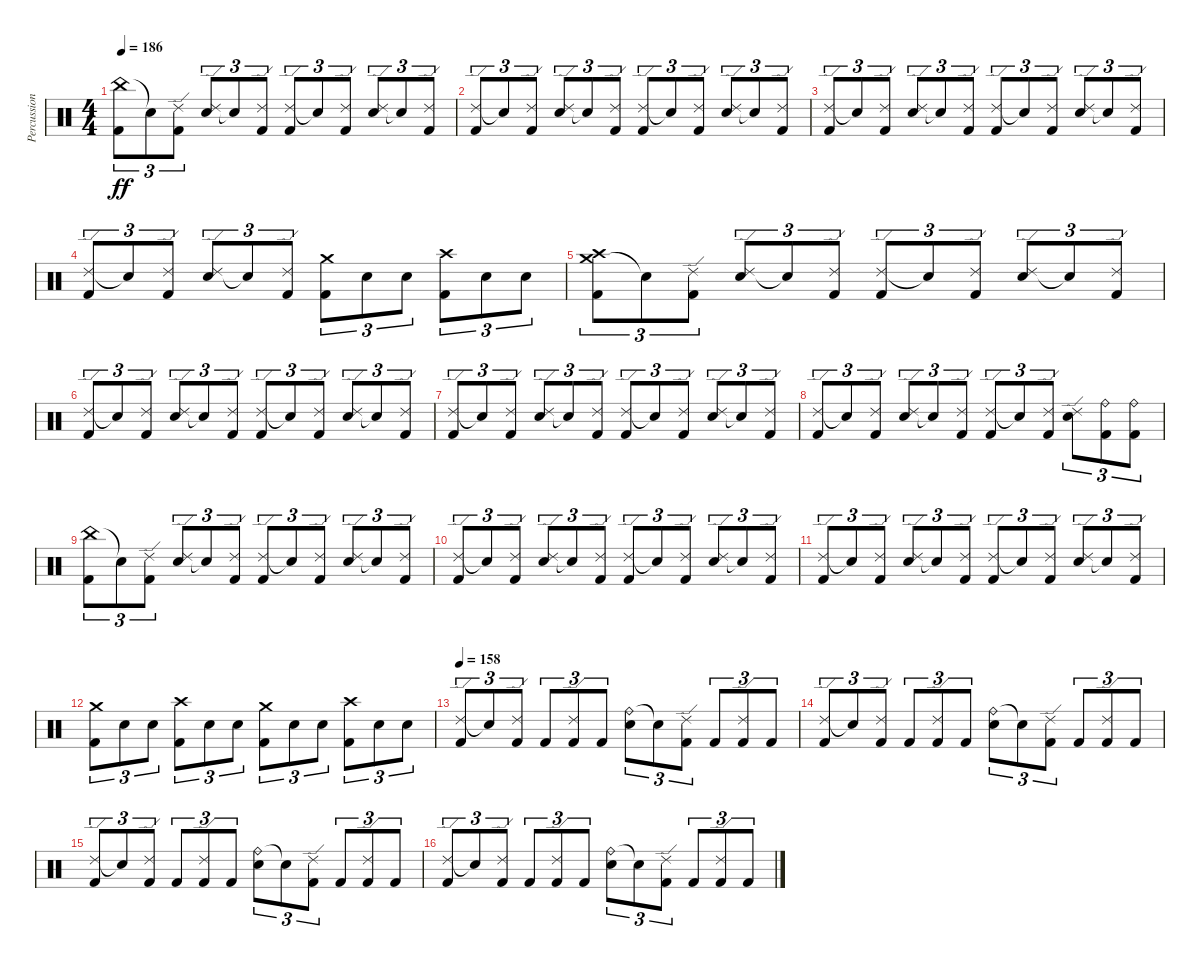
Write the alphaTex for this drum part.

\track ("Percussion" "Percussion") {instrument percussion}
\staff {score}
\articulation defaults
\ts (4 4)
\tempo 186
\clef neutral
\ks c
("China (hit)" "Kick (hit) 2").8{tu (3 2) dy ff} "Snare (hit)"{t}.8{tu (3 2)} ("Ride (edge) 2" "Kick (hit) 2").8{tu (3 2)} ("Ride (edge) 2" "Snare (hit) 2").8{tu (3 2)} "Snare (hit)"{t}.8{tu (3 2)} ("Ride (edge) 2" "Kick (hit) 2").8{tu (3 2)} ("Ride (edge) 2" "Kick (hit) 2").8{tu (3 2)} "Snare (hit)"{t}.8{tu (3 2)} ("Ride (edge) 2" "Kick (hit) 2").8{tu (3 2)} ("Ride (edge) 2" "Snare (hit) 2").8{tu (3 2)} "Snare (hit)"{t}.8{tu (3 2)} ("Ride (edge) 2" "Kick (hit) 2").8{tu (3 2)} |
("Ride (edge) 2" "Kick (hit) 2").8{tu (3 2)} "Snare (hit)"{t}.8{tu (3 2)} ("Ride (edge) 2" "Kick (hit) 2").8{tu (3 2)} ("Ride (edge) 2" "Snare (hit) 2").8{tu (3 2)} "Snare (hit)"{t}.8{tu (3 2)} ("Ride (edge) 2" "Kick (hit) 2").8{tu (3 2)} ("Ride (edge) 2" "Kick (hit) 2").8{tu (3 2)} "Snare (hit)"{t}.8{tu (3 2)} ("Ride (edge) 2" "Kick (hit) 2").8{tu (3 2)} ("Ride (edge) 2" "Snare (hit) 2").8{tu (3 2)} "Snare (hit)"{t}.8{tu (3 2)} ("Ride (edge) 2" "Kick (hit) 2").8{tu (3 2)} |
("Ride (edge) 2" "Kick (hit) 2").8{tu (3 2)} "Snare (hit)"{t}.8{tu (3 2)} ("Ride (edge) 2" "Kick (hit) 2").8{tu (3 2)} ("Ride (edge) 2" "Snare (hit) 2").8{tu (3 2)} "Snare (hit)"{t}.8{tu (3 2)} ("Ride (edge) 2" "Kick (hit) 2").8{tu (3 2)} ("Ride (edge) 2" "Kick (hit) 2").8{tu (3 2)} "Snare (hit)"{t}.8{tu (3 2)} ("Ride (edge) 2" "Kick (hit) 2").8{tu (3 2)} ("Ride (edge) 2" "Snare (hit) 2").8{tu (3 2)} "Snare (hit)"{t}.8{tu (3 2)} ("Ride (edge) 2" "Kick (hit) 2").8{tu (3 2)} |
("Ride (edge) 2" "Kick (hit) 2").8{tu (3 2)} "Snare (hit)"{t}.8{tu (3 2)} ("Ride (edge) 2" "Kick (hit) 2").8{tu (3 2)} ("Ride (edge) 2" "Snare (hit) 2").8{tu (3 2)} "Snare (hit)"{t}.8{tu (3 2)} ("Ride (edge) 2" "Kick (hit) 2").8{tu (3 2)} ("Crash medium (hit)" "Kick (hit) 2").8{tu (3 2)} "Snare (hit) 2".8{tu (3 2)} "Snare (hit) 2".8{tu (3 2)} ("Crash high (hit)" "Kick (hit) 2").8{tu (3 2)} "Snare (hit) 2".8{tu (3 2)} "Snare (hit) 2".8{tu (3 2)} |
("Crash medium (hit)" "Crash high (hit)" "Kick (hit) 2").8{tu (3 2)} "Snare (hit)"{t}.8{tu (3 2)} ("Ride (edge) 2" "Kick (hit) 2").8{tu (3 2)} ("Ride (edge) 2" "Snare (hit) 2").8{tu (3 2)} "Snare (hit)"{t}.8{tu (3 2)} ("Ride (edge) 2" "Kick (hit) 2").8{tu (3 2)} ("Ride (edge) 2" "Kick (hit) 2").8{tu (3 2)} "Snare (hit)"{t}.8{tu (3 2)} ("Ride (edge) 2" "Kick (hit) 2").8{tu (3 2)} ("Ride (edge) 2" "Snare (hit) 2").8{tu (3 2)} "Snare (hit)"{t}.8{tu (3 2)} ("Ride (edge) 2" "Kick (hit) 2").8{tu (3 2)} |
("Ride (edge) 2" "Kick (hit) 2").8{tu (3 2)} "Snare (hit)"{t}.8{tu (3 2)} ("Ride (edge) 2" "Kick (hit) 2").8{tu (3 2)} ("Ride (edge) 2" "Snare (hit) 2").8{tu (3 2)} "Snare (hit)"{t}.8{tu (3 2)} ("Ride (edge) 2" "Kick (hit) 2").8{tu (3 2)} ("Ride (edge) 2" "Kick (hit) 2").8{tu (3 2)} "Snare (hit)"{t}.8{tu (3 2)} ("Ride (edge) 2" "Kick (hit) 2").8{tu (3 2)} ("Ride (edge) 2" "Snare (hit) 2").8{tu (3 2)} "Snare (hit)"{t}.8{tu (3 2)} ("Ride (edge) 2" "Kick (hit) 2").8{tu (3 2)} |
("Ride (edge) 2" "Kick (hit) 2").8{tu (3 2)} "Snare (hit)"{t}.8{tu (3 2)} ("Ride (edge) 2" "Kick (hit) 2").8{tu (3 2)} ("Ride (edge) 2" "Snare (hit) 2").8{tu (3 2)} "Snare (hit)"{t}.8{tu (3 2)} ("Ride (edge) 2" "Kick (hit) 2").8{tu (3 2)} ("Ride (edge) 2" "Kick (hit) 2").8{tu (3 2)} "Snare (hit)"{t}.8{tu (3 2)} ("Ride (edge) 2" "Kick (hit) 2").8{tu (3 2)} ("Ride (edge) 2" "Snare (hit) 2").8{tu (3 2)} "Snare (hit)"{t}.8{tu (3 2)} ("Ride (edge) 2" "Kick (hit) 2").8{tu (3 2)} |
("Ride (edge) 2" "Kick (hit) 2").8{tu (3 2)} "Snare (hit)"{t}.8{tu (3 2)} ("Ride (edge) 2" "Kick (hit) 2").8{tu (3 2)} ("Ride (edge) 2" "Snare (hit) 2").8{tu (3 2)} "Snare (hit)"{t}.8{tu (3 2)} ("Ride (edge) 2" "Kick (hit) 2").8{tu (3 2)} ("Ride (edge) 2" "Kick (hit) 2").8{tu (3 2)} "Snare (hit)"{t}.8{tu (3 2)} ("Ride (edge) 2" "Kick (hit) 2").8{tu (3 2)} ("Ride (edge) 2" "Snare (hit) 2").8{tu (3 2)} ("Ride (bell)" "Kick (hit) 2").8{tu (3 2)} ("Ride (bell)" "Kick (hit) 2").8{tu (3 2)} |
("China (hit)" "Kick (hit) 2").8{tu (3 2)} "Snare (hit)"{t}.8{tu (3 2)} ("Ride (edge) 2" "Kick (hit) 2").8{tu (3 2)} ("Ride (edge) 2" "Snare (hit) 2").8{tu (3 2)} "Snare (hit)"{t}.8{tu (3 2)} ("Ride (edge) 2" "Kick (hit) 2").8{tu (3 2)} ("Ride (edge) 2" "Kick (hit) 2").8{tu (3 2)} "Snare (hit)"{t}.8{tu (3 2)} ("Ride (edge) 2" "Kick (hit) 2").8{tu (3 2)} ("Ride (edge) 2" "Snare (hit) 2").8{tu (3 2)} "Snare (hit)"{t}.8{tu (3 2)} ("Ride (edge) 2" "Kick (hit) 2").8{tu (3 2)} |
("Ride (edge) 2" "Kick (hit) 2").8{tu (3 2)} "Snare (hit)"{t}.8{tu (3 2)} ("Ride (edge) 2" "Kick (hit) 2").8{tu (3 2)} ("Ride (edge) 2" "Snare (hit) 2").8{tu (3 2)} "Snare (hit)"{t}.8{tu (3 2)} ("Ride (edge) 2" "Kick (hit) 2").8{tu (3 2)} ("Ride (edge) 2" "Kick (hit) 2").8{tu (3 2)} "Snare (hit)"{t}.8{tu (3 2)} ("Ride (edge) 2" "Kick (hit) 2").8{tu (3 2)} ("Ride (edge) 2" "Snare (hit) 2").8{tu (3 2)} "Snare (hit)"{t}.8{tu (3 2)} ("Ride (edge) 2" "Kick (hit) 2").8{tu (3 2)} |
("Ride (edge) 2" "Kick (hit) 2").8{tu (3 2)} "Snare (hit)"{t}.8{tu (3 2)} ("Ride (edge) 2" "Kick (hit) 2").8{tu (3 2)} ("Ride (edge) 2" "Snare (hit) 2").8{tu (3 2)} "Snare (hit)"{t}.8{tu (3 2)} ("Ride (edge) 2" "Kick (hit) 2").8{tu (3 2)} ("Ride (edge) 2" "Kick (hit) 2").8{tu (3 2)} "Snare (hit)"{t}.8{tu (3 2)} ("Ride (edge) 2" "Kick (hit) 2").8{tu (3 2)} ("Ride (edge) 2" "Snare (hit) 2").8{tu (3 2)} "Snare (hit)"{t}.8{tu (3 2)} ("Ride (edge) 2" "Kick (hit) 2").8{tu (3 2)} |
("Crash medium (hit)" "Kick (hit) 2").8{tu (3 2)} "Snare (hit) 2".8{tu (3 2)} "Snare (hit) 2".8{tu (3 2)} ("Crash high (hit)" "Kick (hit) 2").8{tu (3 2)} "Snare (hit) 2".8{tu (3 2)} "Snare (hit) 2".8{tu (3 2)} ("Crash medium (hit)" "Kick (hit) 2").8{tu (3 2)} "Snare (hit) 2".8{tu (3 2)} "Snare (hit) 2".8{tu (3 2)} ("Crash high (hit)" "Kick (hit) 2").8{tu (3 2)} "Snare (hit) 2".8{tu (3 2)} "Snare (hit) 2".8{tu (3 2)} |
\tempo 158
("Ride (edge) 2" "Kick (hit) 2").8{tu (3 2)} "Snare (hit)"{t}.8{tu (3 2)} ("Ride (edge) 2" "Kick (hit) 2").8{tu (3 2)} "Kick (hit) 2".8{tu (3 2)} ("Ride (edge) 2" "Kick (hit) 2").8{tu (3 2)} "Kick (hit) 2".8{tu (3 2)} ("Ride (bell)" "Snare (hit) 2").8{tu (3 2)} "Snare (hit)"{t}.8{tu (3 2)} ("Ride (edge) 2" "Kick (hit) 2").8{tu (3 2)} "Kick (hit) 2".8{tu (3 2)} ("Ride (edge) 2" "Kick (hit) 2").8{tu (3 2)} "Kick (hit) 2".8{tu (3 2)} |
("Ride (edge) 2" "Kick (hit) 2").8{tu (3 2)} "Snare (hit)"{t}.8{tu (3 2)} ("Ride (edge) 2" "Kick (hit) 2").8{tu (3 2)} "Kick (hit) 2".8{tu (3 2)} ("Ride (edge) 2" "Kick (hit) 2").8{tu (3 2)} "Kick (hit) 2".8{tu (3 2)} ("Ride (bell)" "Snare (hit) 2").8{tu (3 2)} "Snare (hit)"{t}.8{tu (3 2)} ("Ride (edge) 2" "Kick (hit) 2").8{tu (3 2)} "Kick (hit) 2".8{tu (3 2)} ("Ride (edge) 2" "Kick (hit) 2").8{tu (3 2)} "Kick (hit) 2".8{tu (3 2)} |
("Ride (edge) 2" "Kick (hit) 2").8{tu (3 2)} "Snare (hit)"{t}.8{tu (3 2)} ("Ride (edge) 2" "Kick (hit) 2").8{tu (3 2)} "Kick (hit) 2".8{tu (3 2)} ("Ride (edge) 2" "Kick (hit) 2").8{tu (3 2)} "Kick (hit) 2".8{tu (3 2)} ("Ride (bell)" "Snare (hit) 2").8{tu (3 2)} "Snare (hit)"{t}.8{tu (3 2)} ("Ride (edge) 2" "Kick (hit) 2").8{tu (3 2)} "Kick (hit) 2".8{tu (3 2)} ("Ride (edge) 2" "Kick (hit) 2").8{tu (3 2)} "Kick (hit) 2".8{tu (3 2)} |
("Ride (edge) 2" "Kick (hit) 2").8{tu (3 2)} "Snare (hit)"{t}.8{tu (3 2)} ("Ride (edge) 2" "Kick (hit) 2").8{tu (3 2)} "Kick (hit) 2".8{tu (3 2)} ("Ride (edge) 2" "Kick (hit) 2").8{tu (3 2)} "Kick (hit) 2".8{tu (3 2)} ("Ride (bell)" "Snare (hit) 2").8{tu (3 2)} "Snare (hit)"{t}.8{tu (3 2)} ("Ride (edge) 2" "Kick (hit) 2").8{tu (3 2)} "Kick (hit) 2".8{tu (3 2)} ("Ride (edge) 2" "Kick (hit) 2").8{tu (3 2)} "Kick (hit) 2".8{tu (3 2)}
